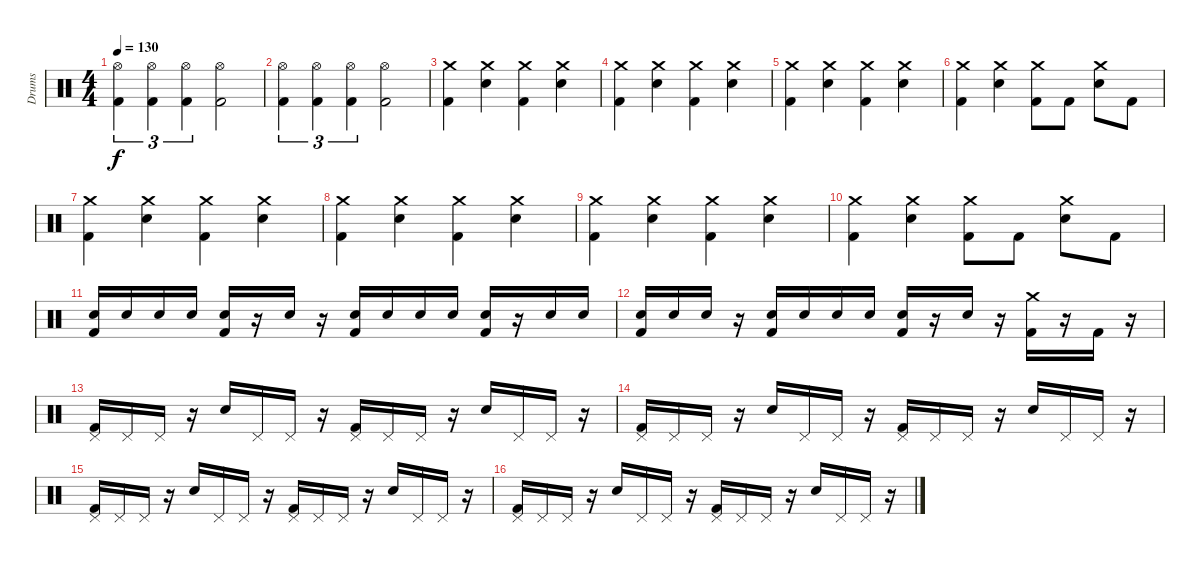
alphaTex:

\track ("Drums" "Drums") {instrument percussion}
\staff {score}
\articulation defaults
\ts (4 4)
\tempo 130
\clef neutral
\ks c
("Hi-Hat (open)" "Kick (hit) 2").4{tu (3 2) dy f} ("Hi-Hat (open)" "Kick (hit) 2").4{tu (3 2)} ("Hi-Hat (open)" "Kick (hit) 2").4{tu (3 2)} ("Hi-Hat (open)" "Kick (hit) 2").2 |
("Hi-Hat (open)" "Kick (hit) 2").4{tu (3 2)} ("Hi-Hat (open)" "Kick (hit) 2").4{tu (3 2)} ("Hi-Hat (open)" "Kick (hit) 2").4{tu (3 2)} ("Hi-Hat (open)" "Kick (hit) 2").2 |
("Crash medium (hit)" "Kick (hit) 2").4 ("Crash medium (hit)" "Electric Snare (hit)").4 ("Crash medium (hit)" "Kick (hit) 2").4 ("Crash medium (hit)" "Electric Snare (hit)").4 |
("Crash medium (hit)" "Kick (hit) 2").4 ("Crash medium (hit)" "Electric Snare (hit)").4 ("Crash medium (hit)" "Kick (hit) 2").4 ("Crash medium (hit)" "Electric Snare (hit)").4 |
("Crash medium (hit)" "Kick (hit) 2").4 ("Crash medium (hit)" "Electric Snare (hit)").4 ("Crash medium (hit)" "Kick (hit) 2").4 ("Crash medium (hit)" "Electric Snare (hit)").4 |
("Crash medium (hit)" "Kick (hit) 2").4 ("Crash medium (hit)" "Electric Snare (hit)").4 ("Crash medium (hit)" "Kick (hit) 2").8 "Kick (hit) 2".8 ("Crash medium (hit)" "Electric Snare (hit)").8 "Kick (hit) 2".8 |
("Crash medium (hit)" "Kick (hit) 2").4 ("Crash medium (hit)" "Electric Snare (hit)").4 ("Crash medium (hit)" "Kick (hit) 2").4 ("Crash medium (hit)" "Electric Snare (hit)").4 |
("Crash medium (hit)" "Kick (hit) 2").4 ("Crash medium (hit)" "Electric Snare (hit)").4 ("Crash medium (hit)" "Kick (hit) 2").4 ("Crash medium (hit)" "Electric Snare (hit)").4 |
("Crash medium (hit)" "Kick (hit) 2").4 ("Crash medium (hit)" "Electric Snare (hit)").4 ("Crash medium (hit)" "Kick (hit) 2").4 ("Crash medium (hit)" "Electric Snare (hit)").4 |
("Crash medium (hit)" "Kick (hit) 2").4 ("Crash medium (hit)" "Electric Snare (hit)").4 ("Crash medium (hit)" "Kick (hit) 2").8 "Kick (hit) 2".8 ("Crash medium (hit)" "Electric Snare (hit)").8 "Kick (hit) 2".8 |
("Electric Snare (hit)" "Kick (hit) 2").16 "Electric Snare (hit)".16 "Electric Snare (hit)".16 "Electric Snare (hit)".16 ("Electric Snare (hit)" "Kick (hit) 2").16 r.16 "Electric Snare (hit)".16 r.16 ("Electric Snare (hit)" "Kick (hit) 2").16 "Electric Snare (hit)".16 "Electric Snare (hit)".16 "Electric Snare (hit)".16 ("Electric Snare (hit)" "Kick (hit) 2").16 r.16 "Electric Snare (hit)".16 "Electric Snare (hit)".16 |
("Electric Snare (hit)" "Kick (hit) 2").16 "Electric Snare (hit)".16 "Electric Snare (hit)".16 r.16 ("Electric Snare (hit)" "Kick (hit) 2").16 "Electric Snare (hit)".16 "Electric Snare (hit)".16 "Electric Snare (hit)".16 ("Electric Snare (hit)" "Kick (hit) 2").16 r.16 "Electric Snare (hit)".16 r.16 ("Crash medium (hit)" "Kick (hit) 2").16 r.16 "Kick (hit) 2".16 r.16 |
("Pedal Hi-Hat (hit)" "Kick (hit) 2").16 "Pedal Hi-Hat (hit)".16 "Pedal Hi-Hat (hit)".16 r.16 "Electric Snare (hit)".16 "Pedal Hi-Hat (hit)".16 "Pedal Hi-Hat (hit)".16 r.16 ("Pedal Hi-Hat (hit)" "Kick (hit) 2").16 "Pedal Hi-Hat (hit)".16 "Pedal Hi-Hat (hit)".16 r.16 "Electric Snare (hit)".16 "Pedal Hi-Hat (hit)".16 "Pedal Hi-Hat (hit)".16 r.16 |
("Pedal Hi-Hat (hit)" "Kick (hit) 2").16 "Pedal Hi-Hat (hit)".16 "Pedal Hi-Hat (hit)".16 r.16 "Electric Snare (hit)".16 "Pedal Hi-Hat (hit)".16 "Pedal Hi-Hat (hit)".16 r.16 ("Pedal Hi-Hat (hit)" "Kick (hit) 2").16 "Pedal Hi-Hat (hit)".16 "Pedal Hi-Hat (hit)".16 r.16 "Electric Snare (hit)".16 "Pedal Hi-Hat (hit)".16 "Pedal Hi-Hat (hit)".16 r.16 |
("Pedal Hi-Hat (hit)" "Kick (hit) 2").16 "Pedal Hi-Hat (hit)".16 "Pedal Hi-Hat (hit)".16 r.16 "Electric Snare (hit)".16 "Pedal Hi-Hat (hit)".16 "Pedal Hi-Hat (hit)".16 r.16 ("Pedal Hi-Hat (hit)" "Kick (hit) 2").16 "Pedal Hi-Hat (hit)".16 "Pedal Hi-Hat (hit)".16 r.16 "Electric Snare (hit)".16 "Pedal Hi-Hat (hit)".16 "Pedal Hi-Hat (hit)".16 r.16 |
("Pedal Hi-Hat (hit)" "Kick (hit) 2").16 "Pedal Hi-Hat (hit)".16 "Pedal Hi-Hat (hit)".16 r.16 "Electric Snare (hit)".16 "Pedal Hi-Hat (hit)".16 "Pedal Hi-Hat (hit)".16 r.16 ("Pedal Hi-Hat (hit)" "Kick (hit) 2").16 "Pedal Hi-Hat (hit)".16 "Pedal Hi-Hat (hit)".16 r.16 "Electric Snare (hit)".16 "Pedal Hi-Hat (hit)".16 "Pedal Hi-Hat (hit)".16 r.16
